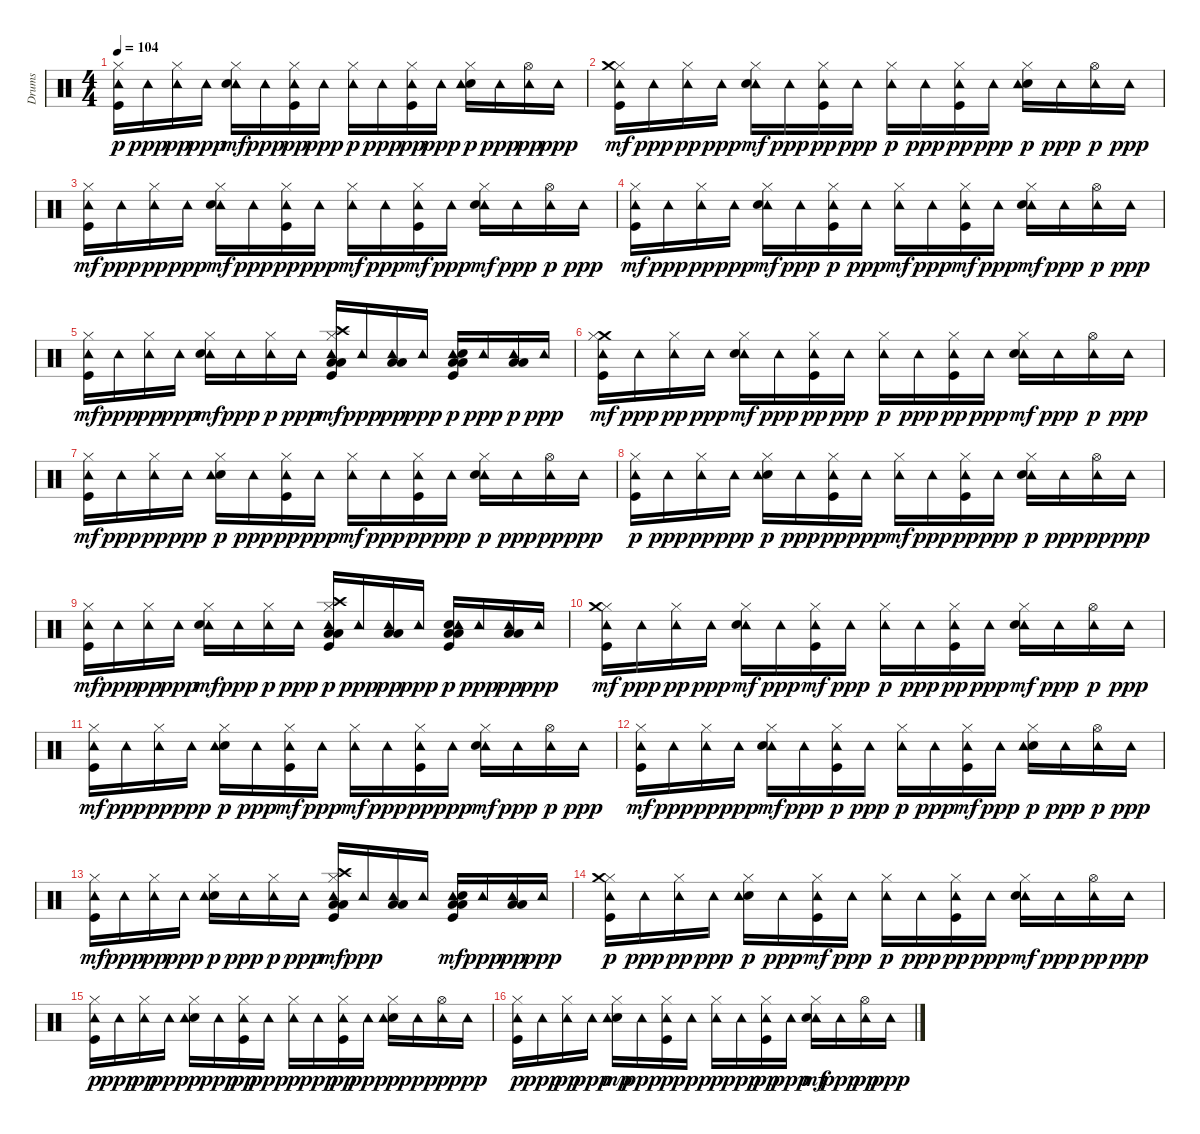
\track ("Drums" "Drums") {instrument percussion}
\staff {score}
\articulation defaults
\ts (4 4)
\tempo 104
\clef neutral
\ks c
("Kick (hit)" "Hi-Hat (closed)" "Tambourine (hit)").16{dy p} "Tambourine (hit)".16{dy ppp} ("Hi-Hat (closed)" "Tambourine (hit)").16{dy pp} "Tambourine (hit)".16{dy ppp} ("Tambourine (hit)" "Hi-Hat (closed)" "Electric Snare (hit)").16{dy mf} "Tambourine (hit)".16{dy ppp} ("Kick (hit)" "Hi-Hat (closed)" "Tambourine (hit)").16{dy pp} "Tambourine (hit)".16{dy ppp} ("Hi-Hat (closed)" "Tambourine (hit)").16{dy p} "Tambourine (hit)".16{dy ppp} ("Kick (hit)" "Hi-Hat (closed)" "Tambourine (hit)").16{dy pp} "Tambourine (hit)".16{dy ppp} ("Hi-Hat (closed)" "Electric Snare (hit)" "Tambourine (hit)").16{dy p} "Tambourine (hit)".16{dy ppp} ("Hi-Hat (open)" "Tambourine (hit)").16{dy pp} "Tambourine (hit)".16{dy ppp} |
("Kick (hit)" "Hi-Hat (closed)" "Tambourine (hit)" "Crash medium (hit)").16{dy mf} "Tambourine (hit)".16{dy ppp} ("Hi-Hat (closed)" "Tambourine (hit)").16{dy pp} "Tambourine (hit)".16{dy ppp} ("Hi-Hat (closed)" "Tambourine (hit)" "Electric Snare (hit)").16{dy mf} "Tambourine (hit)".16{dy ppp} ("Hi-Hat (closed)" "Kick (hit)" "Tambourine (hit)").16{dy pp} "Tambourine (hit)".16{dy ppp} ("Hi-Hat (closed)" "Tambourine (hit)").16{dy p} "Tambourine (hit)".16{dy ppp} ("Tambourine (hit)" "Kick (hit)" "Hi-Hat (closed)").16{dy pp} "Tambourine (hit)".16{dy ppp} ("Hi-Hat (closed)" "Electric Snare (hit)" "Tambourine (hit)").16{dy p} "Tambourine (hit)".16{dy ppp} ("Tambourine (hit)" "Hi-Hat (open)").16{dy p} "Tambourine (hit)".16{dy ppp} |
("Tambourine (hit)" "Hi-Hat (closed)" "Kick (hit)").16{dy mf} "Tambourine (hit)".16{dy ppp} ("Tambourine (hit)" "Hi-Hat (closed)").16{dy pp} "Tambourine (hit)".16{dy ppp} ("Tambourine (hit)" "Hi-Hat (closed)" "Electric Snare (hit)").16{dy mf} "Tambourine (hit)".16{dy ppp} ("Hi-Hat (closed)" "Kick (hit)" "Tambourine (hit)").16{dy pp} "Tambourine (hit)".16{dy ppp} ("Tambourine (hit)" "Hi-Hat (closed)").16{dy mf} "Tambourine (hit)".16{dy ppp} ("Tambourine (hit)" "Hi-Hat (closed)" "Kick (hit)").16{dy mf} "Tambourine (hit)".16{dy ppp} ("Hi-Hat (closed)" "Tambourine (hit)" "Electric Snare (hit)").16{dy mf} "Tambourine (hit)".16{dy ppp} ("Tambourine (hit)" "Hi-Hat (open)").16{dy p} "Tambourine (hit)".16{dy ppp} |
("Tambourine (hit)" "Hi-Hat (closed)" "Kick (hit)").16{dy mf} "Tambourine (hit)".16{dy ppp} ("Hi-Hat (closed)" "Tambourine (hit)").16{dy pp} "Tambourine (hit)".16{dy ppp} ("Hi-Hat (closed)" "Tambourine (hit)" "Electric Snare (hit)").16{dy mf} "Tambourine (hit)".16{dy ppp} ("Tambourine (hit)" "Kick (hit)" "Hi-Hat (closed)").16{dy p} "Tambourine (hit)".16{dy ppp} ("Tambourine (hit)" "Hi-Hat (closed)").16{dy mf} "Tambourine (hit)".16{dy ppp} ("Hi-Hat (closed)" "Tambourine (hit)" "Kick (hit)").16{dy mf} "Tambourine (hit)".16{dy ppp} ("Tambourine (hit)" "Hi-Hat (closed)" "Electric Snare (hit)").16{dy mf} "Tambourine (hit)".16{dy ppp} ("Tambourine (hit)" "Hi-Hat (open)").16{dy p} "Tambourine (hit)".16{dy ppp} |
("Hi-Hat (closed)" "Tambourine (hit)" "Kick (hit)").16{dy mf} "Tambourine (hit)".16{dy ppp} ("Hi-Hat (closed)" "Tambourine (hit)").16{dy pp} "Tambourine (hit)".16{dy ppp} ("Tambourine (hit)" "Hi-Hat (closed)" "Electric Snare (hit)").16{dy mf} "Tambourine (hit)".16{dy ppp} ("Tambourine (hit)" "Hi-Hat (closed)").16{dy p} "Tambourine (hit)".16{dy ppp} ("Tambourine (hit)" "Low Tom (hit)" "Crash high (hit)" "Hi-Hat (closed)" "Kick (hit)" "Low Floor Tom (hit)").16{dy mf} "Tambourine (hit)".16{dy ppp} ("Tambourine (hit)" "Low Floor Tom (hit)" "Low Tom (hit)").16{dy pp} "Tambourine (hit)".16{dy ppp} ("Kick (hit)" "Tambourine (hit)" "Low Tom (hit)" "Electric Snare (hit)" "Low Floor Tom (hit)").16{dy p} "Tambourine (hit)".16{dy ppp} ("Tambourine (hit)" "Low Floor Tom (hit)" "Low Tom (hit)").16{dy p} "Tambourine (hit)".16{dy ppp} |
("Crash medium (hit)" "Hi-Hat (closed)" "Tambourine (hit)" "Kick (hit)").16{dy mf} "Tambourine (hit)".16{dy ppp} ("Tambourine (hit)" "Hi-Hat (closed)").16{dy pp} "Tambourine (hit)".16{dy ppp} ("Hi-Hat (closed)" "Tambourine (hit)" "Electric Snare (hit)").16{dy mf} "Tambourine (hit)".16{dy ppp} ("Kick (hit)" "Tambourine (hit)" "Hi-Hat (closed)").16{dy pp} "Tambourine (hit)".16{dy ppp} ("Hi-Hat (closed)" "Tambourine (hit)").16{dy p} "Tambourine (hit)".16{dy ppp} ("Kick (hit)" "Tambourine (hit)" "Hi-Hat (closed)").16{dy pp} "Tambourine (hit)".16{dy ppp} ("Tambourine (hit)" "Hi-Hat (closed)" "Electric Snare (hit)").16{dy mf} "Tambourine (hit)".16{dy ppp} ("Tambourine (hit)" "Hi-Hat (open)").16{dy p} "Tambourine (hit)".16{dy ppp} |
("Tambourine (hit)" "Hi-Hat (closed)" "Kick (hit)").16{dy mf} "Tambourine (hit)".16{dy ppp} ("Tambourine (hit)" "Hi-Hat (closed)").16{dy pp} "Tambourine (hit)".16{dy ppp} ("Electric Snare (hit)" "Hi-Hat (closed)" "Tambourine (hit)").16{dy p} "Tambourine (hit)".16{dy ppp} ("Kick (hit)" "Hi-Hat (closed)" "Tambourine (hit)").16{dy pp} "Tambourine (hit)".16{dy ppp} ("Tambourine (hit)" "Hi-Hat (closed)").16{dy mf} "Tambourine (hit)".16{dy ppp} ("Kick (hit)" "Tambourine (hit)" "Hi-Hat (closed)").16{dy pp} "Tambourine (hit)".16{dy ppp} ("Tambourine (hit)" "Electric Snare (hit)" "Hi-Hat (closed)").16{dy p} "Tambourine (hit)".16{dy ppp} ("Hi-Hat (open)" "Tambourine (hit)").16{dy pp} "Tambourine (hit)".16{dy ppp} |
("Hi-Hat (closed)" "Kick (hit)" "Tambourine (hit)").16{dy p} "Tambourine (hit)".16{dy ppp} ("Hi-Hat (closed)" "Tambourine (hit)").16{dy pp} "Tambourine (hit)".16{dy ppp} ("Electric Snare (hit)" "Hi-Hat (closed)" "Tambourine (hit)").16{dy p} "Tambourine (hit)".16{dy ppp} ("Kick (hit)" "Hi-Hat (closed)" "Tambourine (hit)").16{dy pp} "Tambourine (hit)".16{dy ppp} ("Tambourine (hit)" "Hi-Hat (closed)").16{dy mf} "Tambourine (hit)".16{dy ppp} ("Kick (hit)" "Tambourine (hit)" "Hi-Hat (closed)").16{dy pp} "Tambourine (hit)".16{dy ppp} ("Tambourine (hit)" "Electric Snare (hit)" "Hi-Hat (closed)").16{dy p} "Tambourine (hit)".16{dy ppp} ("Hi-Hat (open)" "Tambourine (hit)").16{dy pp} "Tambourine (hit)".16{dy ppp} |
("Tambourine (hit)" "Hi-Hat (closed)" "Kick (hit)").16{dy mf} "Tambourine (hit)".16{dy ppp} ("Tambourine (hit)" "Hi-Hat (closed)").16{dy pp} "Tambourine (hit)".16{dy ppp} ("Hi-Hat (closed)" "Tambourine (hit)" "Electric Snare (hit)").16{dy mf} "Tambourine (hit)".16{dy ppp} ("Tambourine (hit)" "Hi-Hat (closed)").16{dy p} "Tambourine (hit)".16{dy ppp} ("Hi-Hat (closed)" "Kick (hit)" "Crash high (hit)" "Low Floor Tom (hit)" "Low Tom (hit)" "Tambourine (hit)").16{dy p} "Tambourine (hit)".16{dy ppp} ("Low Floor Tom (hit)" "Low Tom (hit)" "Tambourine (hit)").16{dy pp} "Tambourine (hit)".16{dy ppp} ("Kick (hit)" "Low Floor Tom (hit)" "Electric Snare (hit)" "Tambourine (hit)" "Low Tom (hit)").16{dy p} "Tambourine (hit)".16{dy ppp} ("Low Floor Tom (hit)" "Low Tom (hit)" "Tambourine (hit)").16{dy pp} "Tambourine (hit)".16{dy ppp} |
("Hi-Hat (closed)" "Crash medium (hit)" "Tambourine (hit)" "Kick (hit)").16{dy mf} "Tambourine (hit)".16{dy ppp} ("Tambourine (hit)" "Hi-Hat (closed)").16{dy pp} "Tambourine (hit)".16{dy ppp} ("Tambourine (hit)" "Hi-Hat (closed)" "Electric Snare (hit)").16{dy mf} "Tambourine (hit)".16{dy ppp} ("Hi-Hat (closed)" "Tambourine (hit)" "Kick (hit)").16{dy mf} "Tambourine (hit)".16{dy ppp} ("Hi-Hat (closed)" "Tambourine (hit)").16{dy p} "Tambourine (hit)".16{dy ppp} ("Kick (hit)" "Tambourine (hit)" "Hi-Hat (closed)").16{dy pp} "Tambourine (hit)".16{dy ppp} ("Tambourine (hit)" "Hi-Hat (closed)" "Electric Snare (hit)").16{dy mf} "Tambourine (hit)".16{dy ppp} ("Tambourine (hit)" "Hi-Hat (open)").16{dy p} "Tambourine (hit)".16{dy ppp} |
("Kick (hit)" "Tambourine (hit)" "Hi-Hat (closed)").16{dy mf} "Tambourine (hit)".16{dy ppp} ("Hi-Hat (closed)" "Tambourine (hit)").16{dy pp} "Tambourine (hit)".16{dy ppp} ("Hi-Hat (closed)" "Electric Snare (hit)" "Tambourine (hit)").16{dy p} "Tambourine (hit)".16{dy ppp} ("Tambourine (hit)" "Hi-Hat (closed)" "Kick (hit)").16{dy mf} "Tambourine (hit)".16{dy ppp} ("Tambourine (hit)" "Hi-Hat (closed)").16{dy mf} "Tambourine (hit)".16{dy ppp} ("Kick (hit)" "Hi-Hat (closed)" "Tambourine (hit)").16{dy pp} "Tambourine (hit)".16{dy ppp} ("Tambourine (hit)" "Hi-Hat (closed)" "Electric Snare (hit)").16{dy mf} "Tambourine (hit)".16{dy ppp} ("Tambourine (hit)" "Hi-Hat (open)").16{dy p} "Tambourine (hit)".16{dy ppp} |
("Tambourine (hit)" "Hi-Hat (closed)" "Kick (hit)").16{dy mf volume 0} "Tambourine (hit)".16{dy ppp} ("Tambourine (hit)" "Hi-Hat (closed)").16{dy pp} "Tambourine (hit)".16{dy ppp} ("Tambourine (hit)" "Hi-Hat (closed)" "Electric Snare (hit)").16{dy mf} "Tambourine (hit)".16{dy ppp} ("Tambourine (hit)" "Kick (hit)" "Hi-Hat (closed)").16{dy p} "Tambourine (hit)".16{dy ppp} ("Hi-Hat (closed)" "Tambourine (hit)").16{dy p} "Tambourine (hit)".16{dy ppp} ("Tambourine (hit)" "Hi-Hat (closed)" "Kick (hit)").16{dy mf} "Tambourine (hit)".16{dy ppp} ("Hi-Hat (closed)" "Electric Snare (hit)" "Tambourine (hit)").16{dy p} "Tambourine (hit)".16{dy ppp} ("Tambourine (hit)" "Hi-Hat (open)").16{dy p} "Tambourine (hit)".16{dy ppp} |
("Tambourine (hit)" "Hi-Hat (closed)" "Kick (hit)").16{dy mf} "Tambourine (hit)".16{dy ppp} ("Hi-Hat (closed)" "Tambourine (hit)").16{dy pp} "Tambourine (hit)".16{dy ppp} ("Electric Snare (hit)" "Hi-Hat (closed)" "Tambourine (hit)").16{dy p} "Tambourine (hit)".16{dy ppp} ("Tambourine (hit)" "Hi-Hat (closed)").16{dy p} "Tambourine (hit)".16{dy ppp} ("Hi-Hat (closed)" "Crash high (hit)" "Low Floor Tom (hit)" "Low Tom (hit)" "Tambourine (hit)" "Kick (hit)").16{dy mf} "Tambourine (hit)".16{dy ppp} ("Low Tom (hit)" "Tambourine (hit)" "Low Floor Tom (hit)").16 "Tambourine (hit)".16 ("Tambourine (hit)" "Kick (hit)" "Low Tom (hit)" "Low Floor Tom (hit)" "Electric Snare (hit)").16{dy mf} "Tambourine (hit)".16{dy ppp} ("Low Floor Tom (hit)" "Low Tom (hit)" "Tambourine (hit)").16{dy pp} "Tambourine (hit)".16{dy ppp} |
("Kick (hit)" "Hi-Hat (closed)" "Crash medium (hit)" "Tambourine (hit)").16{dy p} "Tambourine (hit)".16{dy ppp} ("Tambourine (hit)" "Hi-Hat (closed)").16{dy pp} "Tambourine (hit)".16{dy ppp} ("Electric Snare (hit)" "Hi-Hat (closed)" "Tambourine (hit)").16{dy p} "Tambourine (hit)".16{dy ppp} ("Hi-Hat (closed)" "Tambourine (hit)" "Kick (hit)").16{dy mf} "Tambourine (hit)".16{dy ppp} ("Hi-Hat (closed)" "Tambourine (hit)").16{dy p} "Tambourine (hit)".16{dy ppp} ("Kick (hit)" "Tambourine (hit)" "Hi-Hat (closed)").16{dy pp} "Tambourine (hit)".16{dy ppp} ("Tambourine (hit)" "Hi-Hat (closed)" "Electric Snare (hit)").16{dy mf} "Tambourine (hit)".16{dy ppp} ("Hi-Hat (open)" "Tambourine (hit)").16{dy pp} "Tambourine (hit)".16{dy ppp} |
("Hi-Hat (closed)" "Kick (hit)" "Tambourine (hit)").16{dy p} "Tambourine (hit)".16{dy ppp} ("Tambourine (hit)" "Hi-Hat (closed)").16{dy pp} "Tambourine (hit)".16{dy ppp} ("Hi-Hat (closed)" "Electric Snare (hit)" "Tambourine (hit)").16{dy p} "Tambourine (hit)".16{dy ppp} ("Tambourine (hit)" "Kick (hit)" "Hi-Hat (closed)").16{dy pp} "Tambourine (hit)".16{dy ppp} ("Hi-Hat (closed)" "Tambourine (hit)").16{dy p} "Tambourine (hit)".16{dy ppp} ("Hi-Hat (closed)" "Kick (hit)" "Tambourine (hit)").16{dy pp} "Tambourine (hit)".16{dy ppp} ("Electric Snare (hit)" "Hi-Hat (closed)" "Tambourine (hit)").16{dy p} "Tambourine (hit)".16{dy ppp} ("Tambourine (hit)" "Hi-Hat (open)").16{dy p} "Tambourine (hit)".16{dy ppp} |
("Kick (hit)" "Hi-Hat (closed)" "Tambourine (hit)").16{dy p} "Tambourine (hit)".16{dy ppp} ("Hi-Hat (closed)" "Tambourine (hit)").16{dy pp} "Tambourine (hit)".16{dy ppp} ("Electric Snare (hit)" "Tambourine (hit)" "Hi-Hat (closed)").16{dy mp} "Tambourine (hit)".16{dy ppp} ("Tambourine (hit)" "Kick (hit)" "Hi-Hat (closed)").16{dy p} "Tambourine (hit)".16{dy ppp} ("Hi-Hat (closed)" "Tambourine (hit)").16{dy p} "Tambourine (hit)".16{dy ppp} ("Kick (hit)" "Tambourine (hit)" "Hi-Hat (closed)").16{dy pp} "Tambourine (hit)".16{dy ppp} ("Hi-Hat (closed)" "Tambourine (hit)" "Electric Snare (hit)").16{dy mf} "Tambourine (hit)".16{dy ppp} ("Hi-Hat (open)" "Tambourine (hit)").16{dy pp} "Tambourine (hit)".16{dy ppp}
